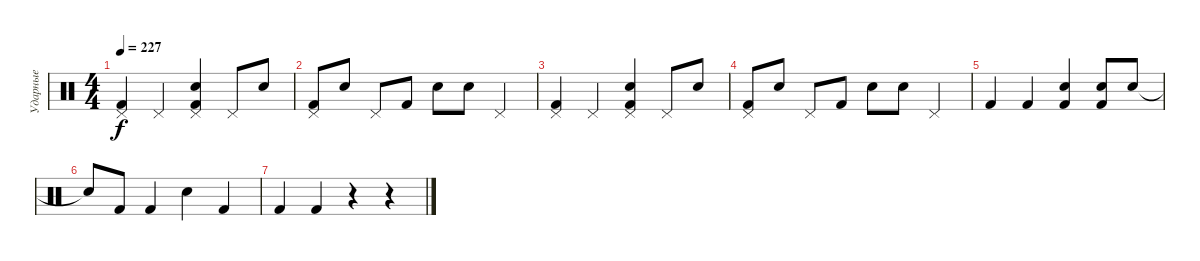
\track ("Ударные" "Ударные") {instrument percussion}
\staff {score}
\articulation defaults
\ts (4 4)
\tempo 227
\clef neutral
\ks c
("Kick (hit) 2" "Pedal Hi-Hat (hit)").4{dy f} "Pedal Hi-Hat (hit)".4 ("Kick (hit) 2" "Pedal Hi-Hat (hit)" "Snare (hit) 2").4 "Pedal Hi-Hat (hit)".8 "Snare (hit) 2".8 |
("Kick (hit) 2" "Pedal Hi-Hat (hit)").8 "Snare (hit) 2".8 "Pedal Hi-Hat (hit)".8 "Kick (hit) 2".8 "Snare (hit) 2".8 "Snare (hit) 2".8 "Pedal Hi-Hat (hit)".4 |
("Kick (hit) 2" "Pedal Hi-Hat (hit)").4 "Pedal Hi-Hat (hit)".4 ("Kick (hit) 2" "Pedal Hi-Hat (hit)" "Snare (hit) 2").4 "Pedal Hi-Hat (hit)".8 "Snare (hit) 2".8 |
("Kick (hit) 2" "Pedal Hi-Hat (hit)").8 "Snare (hit) 2".8 "Pedal Hi-Hat (hit)".8 "Kick (hit) 2".8 "Snare (hit) 2".8 "Snare (hit) 2".8 "Pedal Hi-Hat (hit)".4 |
"Kick (hit) 2".4 "Kick (hit) 2".4 ("Kick (hit) 2" "Snare (hit) 2").4 ("Kick (hit) 2" "Snare (hit) 2").8 "Snare (hit) 2".8 |
"Snare (hit)"{t}.8 "Kick (hit) 2".8 "Kick (hit) 2".4 "Snare (hit) 2".4 "Kick (hit) 2".4 |
"Kick (hit) 2".4 "Kick (hit) 2".4 r.4 r.4
